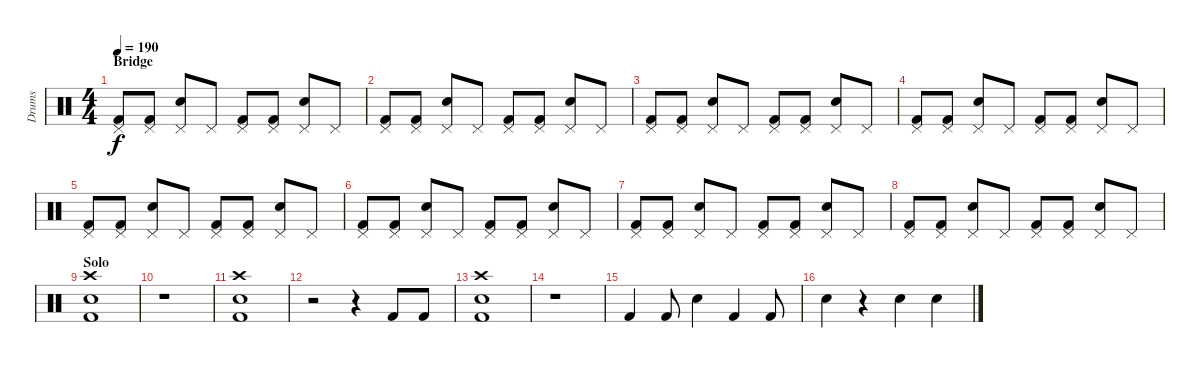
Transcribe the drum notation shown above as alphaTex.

\track ("Drums" "Drums") {instrument percussion}
\staff {score}
\articulation defaults
\ts (4 4)
\section ("" "Bridge")
\tempo 190
\clef neutral
\ks c
("Pedal Hi-Hat (hit)" "Kick (hit) 2").8{dy f} ("Pedal Hi-Hat (hit)" "Kick (hit) 2").8 ("Pedal Hi-Hat (hit)" "Snare (hit) 2").8 "Pedal Hi-Hat (hit)".8 ("Pedal Hi-Hat (hit)" "Kick (hit) 2").8 ("Pedal Hi-Hat (hit)" "Kick (hit) 2").8 ("Pedal Hi-Hat (hit)" "Snare (hit) 2").8 "Pedal Hi-Hat (hit)".8 |
("Pedal Hi-Hat (hit)" "Kick (hit) 2").8 ("Pedal Hi-Hat (hit)" "Kick (hit) 2").8 ("Pedal Hi-Hat (hit)" "Snare (hit) 2").8 "Pedal Hi-Hat (hit)".8 ("Pedal Hi-Hat (hit)" "Kick (hit) 2").8 ("Pedal Hi-Hat (hit)" "Kick (hit) 2").8 ("Pedal Hi-Hat (hit)" "Snare (hit) 2").8 "Pedal Hi-Hat (hit)".8 |
("Pedal Hi-Hat (hit)" "Kick (hit) 2").8 ("Pedal Hi-Hat (hit)" "Kick (hit) 2").8 ("Pedal Hi-Hat (hit)" "Snare (hit) 2").8 "Pedal Hi-Hat (hit)".8 ("Pedal Hi-Hat (hit)" "Kick (hit) 2").8 ("Pedal Hi-Hat (hit)" "Kick (hit) 2").8 ("Pedal Hi-Hat (hit)" "Snare (hit) 2").8 "Pedal Hi-Hat (hit)".8 |
("Pedal Hi-Hat (hit)" "Kick (hit) 2").8 ("Pedal Hi-Hat (hit)" "Kick (hit) 2").8 ("Pedal Hi-Hat (hit)" "Snare (hit) 2").8 "Pedal Hi-Hat (hit)".8 ("Pedal Hi-Hat (hit)" "Kick (hit) 2").8 ("Pedal Hi-Hat (hit)" "Kick (hit) 2").8 ("Pedal Hi-Hat (hit)" "Snare (hit) 2").8 "Pedal Hi-Hat (hit)".8 |
("Pedal Hi-Hat (hit)" "Kick (hit) 2").8 ("Pedal Hi-Hat (hit)" "Kick (hit) 2").8 ("Pedal Hi-Hat (hit)" "Snare (hit) 2").8 "Pedal Hi-Hat (hit)".8 ("Pedal Hi-Hat (hit)" "Kick (hit) 2").8 ("Pedal Hi-Hat (hit)" "Kick (hit) 2").8 ("Pedal Hi-Hat (hit)" "Snare (hit) 2").8 "Pedal Hi-Hat (hit)".8 |
("Pedal Hi-Hat (hit)" "Kick (hit) 2").8 ("Pedal Hi-Hat (hit)" "Kick (hit) 2").8 ("Pedal Hi-Hat (hit)" "Snare (hit) 2").8 "Pedal Hi-Hat (hit)".8 ("Pedal Hi-Hat (hit)" "Kick (hit) 2").8 ("Pedal Hi-Hat (hit)" "Kick (hit) 2").8 ("Pedal Hi-Hat (hit)" "Snare (hit) 2").8 "Pedal Hi-Hat (hit)".8 |
("Pedal Hi-Hat (hit)" "Kick (hit) 2").8 ("Pedal Hi-Hat (hit)" "Kick (hit) 2").8 ("Pedal Hi-Hat (hit)" "Snare (hit) 2").8 "Pedal Hi-Hat (hit)".8 ("Pedal Hi-Hat (hit)" "Kick (hit) 2").8 ("Pedal Hi-Hat (hit)" "Kick (hit) 2").8 ("Pedal Hi-Hat (hit)" "Snare (hit) 2").8 "Pedal Hi-Hat (hit)".8 |
("Pedal Hi-Hat (hit)" "Kick (hit) 2").8 ("Pedal Hi-Hat (hit)" "Kick (hit) 2").8 ("Pedal Hi-Hat (hit)" "Snare (hit) 2").8 "Pedal Hi-Hat (hit)".8 ("Pedal Hi-Hat (hit)" "Kick (hit) 2").8 ("Pedal Hi-Hat (hit)" "Kick (hit) 2").8 ("Pedal Hi-Hat (hit)" "Snare (hit) 2").8 "Pedal Hi-Hat (hit)".8 |
\section ("" "Solo")
("Crash high (hit)" "Snare (hit) 2" "Kick (hit) 2").1 |
r.1 |
("Crash high (hit)" "Snare (hit) 2" "Kick (hit) 2").1 |
r.2 r.4 "Kick (hit) 2".8 "Kick (hit) 2".8 |
("Crash high (hit)" "Snare (hit) 2" "Kick (hit) 2").1 |
r.1 |
"Kick (hit) 2".4 "Kick (hit) 2".8 "Snare (hit) 2".4 "Kick (hit) 2".4 "Kick (hit) 2".8 |
"Snare (hit) 2".4 r.4 "Snare (hit) 2".4 "Snare (hit) 2".4
